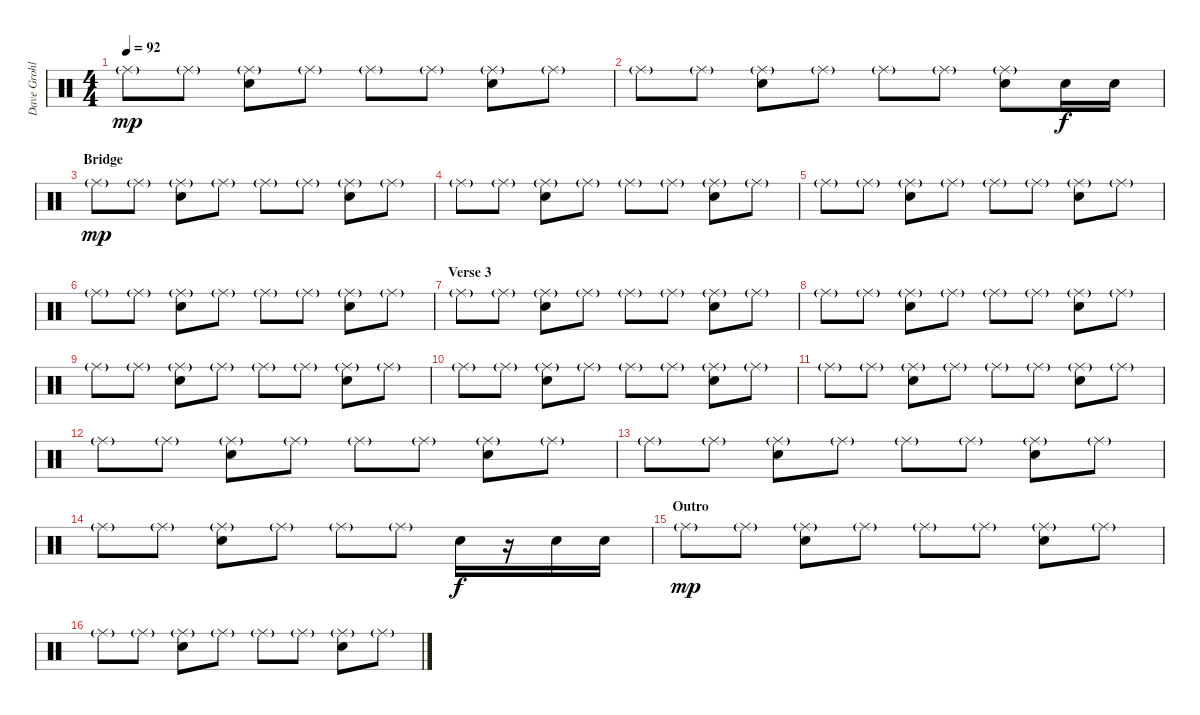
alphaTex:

\track ("Dave Grohl - Drums" "Dave Grohl") {instrument percussion}
\staff {score}
\articulation defaults
\ts (4 4)
\tempo 92
\clef neutral
\ks c "Ride (middle)"{g}.8{dy mp} "Ride (middle)"{g}.8
("Ride (middle)"{g} "Electric Snare (hit)").8 "Ride (middle)"{g}.8 "Ride (middle)"{g}.8 "Ride (middle)"{g}.8 ("Ride (middle)"{g} "Electric Snare (hit)").8 "Ride (middle)"{g}.8 |
"Ride (middle)"{g}.8 "Ride (middle)"{g}.8 ("Ride (middle)"{g} "Electric Snare (hit)").8 "Ride (middle)"{g}.8 "Ride (middle)"{g}.8 "Ride (middle)"{g}.8 ("Ride (middle)"{g} "Electric Snare (hit)").8 "Electric Snare (hit)".16{dy f} "Electric Snare (hit)".16 |
\section ("" "Bridge")
"Ride (middle)"{g}.8{dy mp} "Ride (middle)"{g}.8 ("Ride (middle)"{g} "Electric Snare (hit)").8 "Ride (middle)"{g}.8 "Ride (middle)"{g}.8 "Ride (middle)"{g}.8 ("Ride (middle)"{g} "Electric Snare (hit)").8 "Ride (middle)"{g}.8 |
"Ride (middle)"{g}.8 "Ride (middle)"{g}.8 ("Ride (middle)"{g} "Electric Snare (hit)").8 "Ride (middle)"{g}.8 "Ride (middle)"{g}.8 "Ride (middle)"{g}.8 ("Ride (middle)"{g} "Electric Snare (hit)").8 "Ride (middle)"{g}.8 |
"Ride (middle)"{g}.8 "Ride (middle)"{g}.8 ("Ride (middle)"{g} "Electric Snare (hit)").8 "Ride (middle)"{g}.8 "Ride (middle)"{g}.8 "Ride (middle)"{g}.8 ("Ride (middle)"{g} "Electric Snare (hit)").8 "Ride (middle)"{g}.8 |
"Ride (middle)"{g}.8 "Ride (middle)"{g}.8 ("Ride (middle)"{g} "Electric Snare (hit)").8 "Ride (middle)"{g}.8 "Ride (middle)"{g}.8 "Ride (middle)"{g}.8 ("Ride (middle)"{g} "Electric Snare (hit)").8 "Ride (middle)"{g}.8 |
\section ("" "Verse 3")
"Ride (middle)"{g}.8 "Ride (middle)"{g}.8 ("Ride (middle)"{g} "Electric Snare (hit)").8 "Ride (middle)"{g}.8 "Ride (middle)"{g}.8 "Ride (middle)"{g}.8 ("Ride (middle)"{g} "Electric Snare (hit)").8 "Ride (middle)"{g}.8 |
"Ride (middle)"{g}.8 "Ride (middle)"{g}.8 ("Ride (middle)"{g} "Electric Snare (hit)").8 "Ride (middle)"{g}.8 "Ride (middle)"{g}.8 "Ride (middle)"{g}.8 ("Ride (middle)"{g} "Electric Snare (hit)").8 "Ride (middle)"{g}.8 |
"Ride (middle)"{g}.8 "Ride (middle)"{g}.8 ("Ride (middle)"{g} "Electric Snare (hit)").8 "Ride (middle)"{g}.8 "Ride (middle)"{g}.8 "Ride (middle)"{g}.8 ("Ride (middle)"{g} "Electric Snare (hit)").8 "Ride (middle)"{g}.8 |
"Ride (middle)"{g}.8 "Ride (middle)"{g}.8 ("Ride (middle)"{g} "Electric Snare (hit)").8 "Ride (middle)"{g}.8 "Ride (middle)"{g}.8 "Ride (middle)"{g}.8 ("Ride (middle)"{g} "Electric Snare (hit)").8 "Ride (middle)"{g}.8 |
"Ride (middle)"{g}.8 "Ride (middle)"{g}.8 ("Ride (middle)"{g} "Electric Snare (hit)").8 "Ride (middle)"{g}.8 "Ride (middle)"{g}.8 "Ride (middle)"{g}.8 ("Ride (middle)"{g} "Electric Snare (hit)").8 "Ride (middle)"{g}.8 |
"Ride (middle)"{g}.8 "Ride (middle)"{g}.8 ("Ride (middle)"{g} "Electric Snare (hit)").8 "Ride (middle)"{g}.8 "Ride (middle)"{g}.8 "Ride (middle)"{g}.8 ("Ride (middle)"{g} "Electric Snare (hit)").8 "Ride (middle)"{g}.8 |
"Ride (middle)"{g}.8 "Ride (middle)"{g}.8 ("Ride (middle)"{g} "Electric Snare (hit)").8 "Ride (middle)"{g}.8 "Ride (middle)"{g}.8 "Ride (middle)"{g}.8 ("Ride (middle)"{g} "Electric Snare (hit)").8 "Ride (middle)"{g}.8 |
"Ride (middle)"{g}.8 "Ride (middle)"{g}.8 ("Ride (middle)"{g} "Electric Snare (hit)").8 "Ride (middle)"{g}.8 "Ride (middle)"{g}.8 "Ride (middle)"{g}.8 "Electric Snare (hit)".16{dy f} r.16 "Electric Snare (hit)".16 "Electric Snare (hit)".16 |
\section ("" "Outro")
"Ride (middle)"{g}.8{dy mp} "Ride (middle)"{g}.8 ("Ride (middle)"{g} "Electric Snare (hit)").8 "Ride (middle)"{g}.8 "Ride (middle)"{g}.8 "Ride (middle)"{g}.8 ("Ride (middle)"{g} "Electric Snare (hit)").8 "Ride (middle)"{g}.8 |
"Ride (middle)"{g}.8 "Ride (middle)"{g}.8 ("Ride (middle)"{g} "Electric Snare (hit)").8 "Ride (middle)"{g}.8 "Ride (middle)"{g}.8 "Ride (middle)"{g}.8 ("Ride (middle)"{g} "Electric Snare (hit)").8 "Ride (middle)"{g}.8
